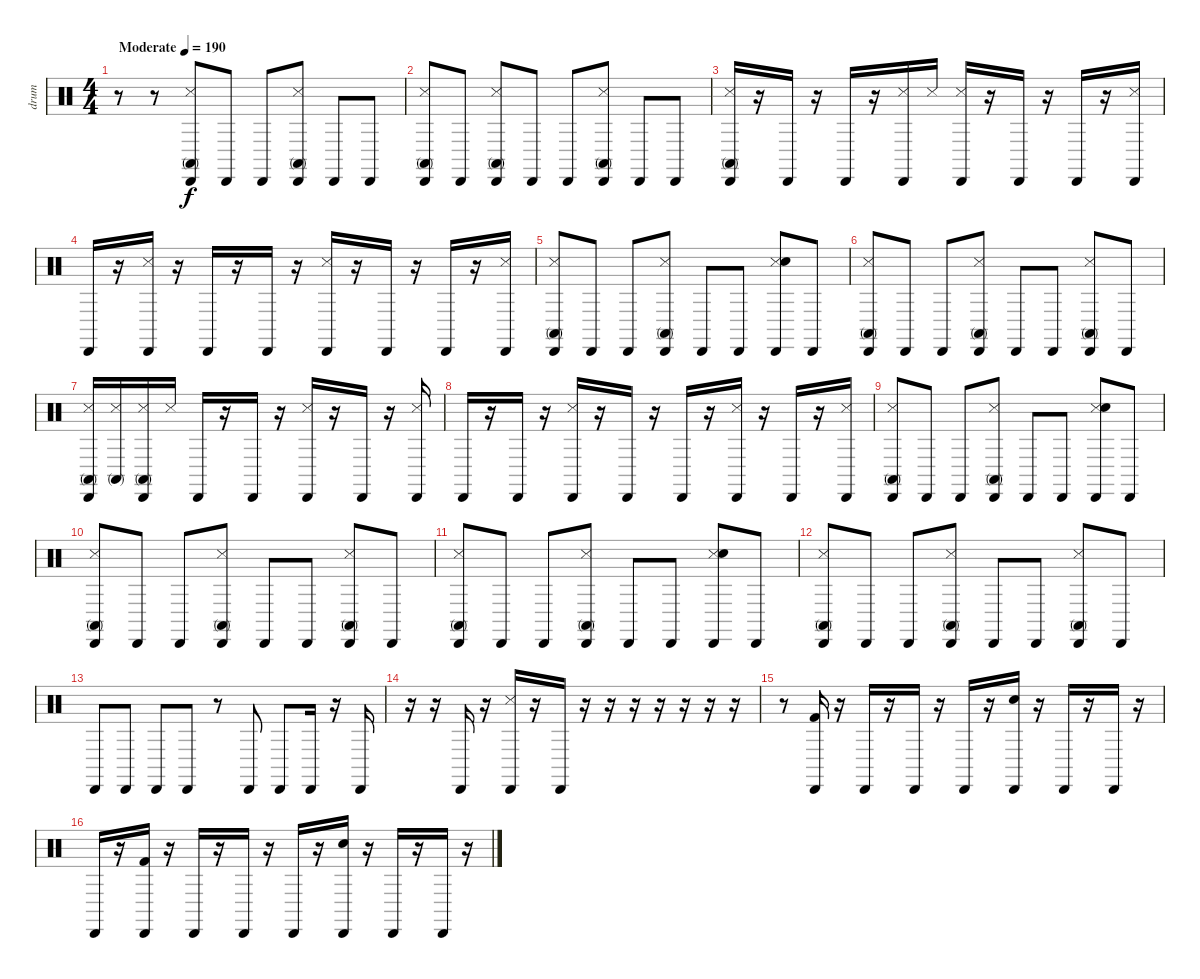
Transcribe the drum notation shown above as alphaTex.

\track ("drum" "drum") {instrument percussion}
\staff {score}
\articulation defaults
\ts (4 4)
\tempo (190 "Moderate")
\clef neutral
\ks c
r.8{dy f} r.8 ("Cabasa (hit)" "Conga high (mute)" "Snare (side stick) 3").8 "Cabasa (hit)".8 "Cabasa (hit)".8 ("Cabasa (hit)" "Snare (side stick) 3" "Conga high (mute)").8 "Cabasa (hit)".8 "Cabasa (hit)".8 |
("Cabasa (hit)" "Snare (side stick) 3" "Conga high (mute)").8 "Cabasa (hit)".8 ("Cabasa (hit)" "Conga high (mute)" "Snare (side stick) 3").8 "Cabasa (hit)".8 "Cabasa (hit)".8 ("Cabasa (hit)" "Conga high (mute)" "Snare (side stick) 3").8 "Cabasa (hit)".8 "Cabasa (hit)".8 |
("Cabasa (hit)" "Conga high (mute)" "Snare (side stick) 3").16 r.16 "Cabasa (hit)".16 r.16 "Cabasa (hit)".16 r.16 ("Cabasa (hit)" "Snare (side stick) 3").16 "Snare (side stick) 3".16 ("Cabasa (hit)" "Snare (side stick) 3").16 r.16 "Cabasa (hit)".16 r.16 "Cabasa (hit)".16 r.16 ("Cabasa (hit)" "Snare (side stick) 3").16 |
"Cabasa (hit)".16 r.16 ("Cabasa (hit)" "Snare (side stick) 3").16 r.16 "Cabasa (hit)".16 r.16 "Cabasa (hit)".16 r.16 ("Cabasa (hit)" "Snare (side stick) 3").16 r.16 "Cabasa (hit)".16 r.16 "Cabasa (hit)".16 r.16 ("Cabasa (hit)" "Snare (side stick) 3").16 |
("Cabasa (hit)" "Conga high (mute)" "Snare (side stick) 3").8 "Cabasa (hit)".8 "Cabasa (hit)".8 ("Cabasa (hit)" "Snare (side stick) 3" "Conga high (mute)").8 "Cabasa (hit)".8 "Cabasa (hit)".8 ("Cabasa (hit)" "Snare (side stick) 3" "Snare (hit)").8 "Cabasa (hit)".8 |
("Cabasa (hit)" "Snare (side stick) 3" "Conga high (mute)").8 "Cabasa (hit)".8 "Cabasa (hit)".8 ("Cabasa (hit)" "Conga high (mute)" "Snare (side stick) 3").8 "Cabasa (hit)".8 "Cabasa (hit)".8 ("Cabasa (hit)" "Conga high (mute)" "Snare (side stick) 3").8 "Cabasa (hit)".8 |
("Cabasa (hit)" "Conga high (mute)" "Snare (side stick) 3").16 ("Conga high (mute)" "Snare (side stick) 3").16 ("Cabasa (hit)" "Conga high (mute)" "Snare (side stick) 3").16 "Snare (side stick) 3".16 "Cabasa (hit)".16 r.16 "Cabasa (hit)".16 r.16 ("Cabasa (hit)" "Snare (side stick) 3").16 r.16 "Cabasa (hit)".16 r.16 ("Cabasa (hit)" "Snare (side stick) 3").16 |
"Cabasa (hit)".16 r.16 "Cabasa (hit)".16 r.16 ("Cabasa (hit)" "Snare (side stick) 3").16 r.16 "Cabasa (hit)".16 r.16 "Cabasa (hit)".16 r.16 ("Cabasa (hit)" "Snare (side stick) 3").16 r.16 "Cabasa (hit)".16 r.16 ("Cabasa (hit)" "Snare (side stick) 3").16 |
("Cabasa (hit)" "Conga high (mute)" "Snare (side stick) 3").8 "Cabasa (hit)".8 "Cabasa (hit)".8 ("Cabasa (hit)" "Snare (side stick) 3" "Conga high (mute)").8 "Cabasa (hit)".8 "Cabasa (hit)".8 ("Cabasa (hit)" "Snare (side stick) 3" "Snare (hit)").8 "Cabasa (hit)".8 |
("Cabasa (hit)" "Snare (side stick) 3" "Conga high (mute)").8 "Cabasa (hit)".8 "Cabasa (hit)".8 ("Cabasa (hit)" "Conga high (mute)" "Snare (side stick) 3").8 "Cabasa (hit)".8 "Cabasa (hit)".8 ("Cabasa (hit)" "Conga high (mute)" "Snare (side stick) 3").8 "Cabasa (hit)".8 |
("Cabasa (hit)" "Conga high (mute)" "Snare (side stick) 3").8 "Cabasa (hit)".8 "Cabasa (hit)".8 ("Cabasa (hit)" "Snare (side stick) 3" "Conga high (mute)").8 "Cabasa (hit)".8 "Cabasa (hit)".8 ("Cabasa (hit)" "Snare (side stick) 3" "Snare (hit)").8 "Cabasa (hit)".8 |
("Cabasa (hit)" "Snare (side stick) 3" "Conga high (mute)").8 "Cabasa (hit)".8 "Cabasa (hit)".8 ("Cabasa (hit)" "Conga high (mute)" "Snare (side stick) 3").8 "Cabasa (hit)".8 "Cabasa (hit)".8 ("Cabasa (hit)" "Conga high (mute)" "Snare (side stick) 3").8 "Cabasa (hit)".8 |
"Cabasa (hit)".8 "Cabasa (hit)".8 "Cabasa (hit)".8 "Cabasa (hit)".8 r.8 "Cabasa (hit)".8 "Cabasa (hit)".8 "Cabasa (hit)".16 r.16 "Cabasa (hit)".16 |
r.16 r.16 "Cabasa (hit)".16 r.16 ("Cabasa (hit)" "Snare (side stick) 3").16 r.16 "Cabasa (hit)".16 r.16 r.16 r.16 r.16 r.16 r.16 r.16 |
r.8 ("Cabasa (hit)" "Kick (hit) 2").16 r.16 "Cabasa (hit)".16 r.16 "Cabasa (hit)".16 r.16 "Cabasa (hit)".16 r.16 ("Cabasa (hit)" "Snare (hit) 2").16 r.16 "Cabasa (hit)".16 r.16 "Cabasa (hit)".16 r.16 |
"Cabasa (hit)".16 r.16 ("Cabasa (hit)" "Kick (hit) 2").16 r.16 "Cabasa (hit)".16 r.16 "Cabasa (hit)".16 r.16 "Cabasa (hit)".16 r.16 ("Cabasa (hit)" "Snare (hit) 2").16 r.16 "Cabasa (hit)".16 r.16 "Cabasa (hit)".16 r.16
